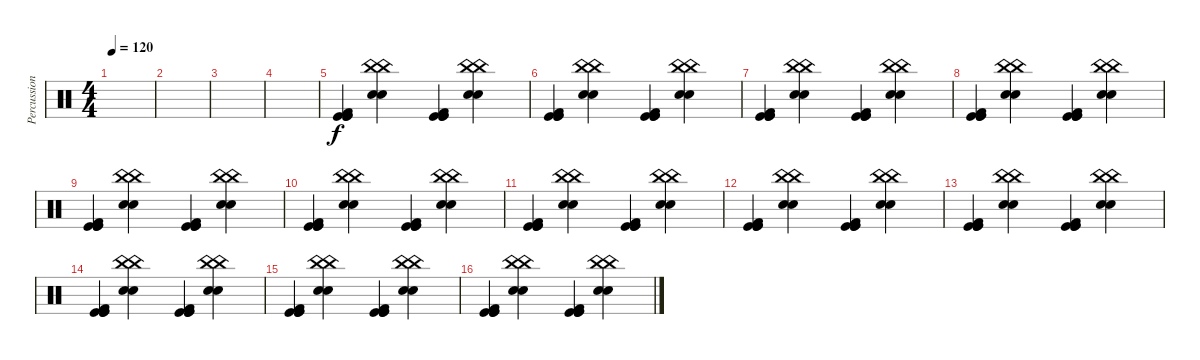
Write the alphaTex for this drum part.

\track ("Percussion" "Percussion") {instrument percussion}
\staff {score}
\articulation defaults
\ts (4 4)
\tempo 120
\tempo 100
\tempo 120
\clef neutral
\ks c
|
|
|
|
("Kick (hit)" "Kick (hit)" "Kick (hit)" "Kick (hit) 2").4 ("China (hit)" "China (hit)" "Snare (hit) 2" "Snare (hit) 2").4 ("Kick (hit)" "Kick (hit)" "Kick (hit)" "Kick (hit) 2").4 ("China (hit)" "China (hit)" "Snare (hit) 2" "Snare (hit) 2").4 |
("Kick (hit)" "Kick (hit)" "Kick (hit)" "Kick (hit) 2").4 ("China (hit)" "China (hit)" "Snare (hit) 2" "Snare (hit) 2").4 ("Kick (hit)" "Kick (hit)" "Kick (hit)" "Kick (hit) 2").4 ("China (hit)" "China (hit)" "Snare (hit) 2" "Snare (hit) 2").4 |
("Kick (hit)" "Kick (hit)" "Kick (hit)" "Kick (hit) 2").4 ("China (hit)" "China (hit)" "Snare (hit) 2" "Snare (hit) 2").4 ("Kick (hit)" "Kick (hit)" "Kick (hit)" "Kick (hit) 2").4 ("China (hit)" "China (hit)" "Snare (hit) 2" "Snare (hit) 2").4 |
("Kick (hit)" "Kick (hit)" "Kick (hit)" "Kick (hit) 2").4 ("China (hit)" "China (hit)" "Snare (hit) 2" "Snare (hit) 2").4 ("Kick (hit)" "Kick (hit)" "Kick (hit)" "Kick (hit) 2").4 ("China (hit)" "China (hit)" "Snare (hit) 2" "Snare (hit) 2").4 |
("Kick (hit)" "Kick (hit)" "Kick (hit)" "Kick (hit) 2").4 ("China (hit)" "China (hit)" "Snare (hit) 2" "Snare (hit) 2").4 ("Kick (hit)" "Kick (hit)" "Kick (hit)" "Kick (hit) 2").4 ("China (hit)" "China (hit)" "Snare (hit) 2" "Snare (hit) 2").4 |
("Kick (hit)" "Kick (hit)" "Kick (hit)" "Kick (hit) 2").4 ("China (hit)" "China (hit)" "Snare (hit) 2" "Snare (hit) 2").4 ("Kick (hit)" "Kick (hit)" "Kick (hit)" "Kick (hit) 2").4 ("China (hit)" "China (hit)" "Snare (hit) 2" "Snare (hit) 2").4 |
("Kick (hit)" "Kick (hit)" "Kick (hit)" "Kick (hit) 2").4 ("China (hit)" "China (hit)" "Snare (hit) 2" "Snare (hit) 2").4 ("Kick (hit)" "Kick (hit)" "Kick (hit)" "Kick (hit) 2").4 ("China (hit)" "China (hit)" "Snare (hit) 2" "Snare (hit) 2").4 |
("Kick (hit)" "Kick (hit)" "Kick (hit)" "Kick (hit) 2").4 ("China (hit)" "China (hit)" "Snare (hit) 2" "Snare (hit) 2").4 ("Kick (hit)" "Kick (hit)" "Kick (hit)" "Kick (hit) 2").4 ("China (hit)" "China (hit)" "Snare (hit) 2" "Snare (hit) 2").4 |
("Kick (hit)" "Kick (hit)" "Kick (hit)" "Kick (hit) 2").4 ("China (hit)" "China (hit)" "Snare (hit) 2" "Snare (hit) 2").4 ("Kick (hit)" "Kick (hit)" "Kick (hit)" "Kick (hit) 2").4 ("China (hit)" "China (hit)" "Snare (hit) 2" "Snare (hit) 2").4 |
("Kick (hit)" "Kick (hit)" "Kick (hit)" "Kick (hit) 2").4 ("China (hit)" "China (hit)" "Snare (hit) 2" "Snare (hit) 2").4 ("Kick (hit)" "Kick (hit)" "Kick (hit)" "Kick (hit) 2").4 ("China (hit)" "China (hit)" "Snare (hit) 2" "Snare (hit) 2").4 |
("Kick (hit)" "Kick (hit)" "Kick (hit)" "Kick (hit) 2").4 ("China (hit)" "China (hit)" "Snare (hit) 2" "Snare (hit) 2").4 ("Kick (hit)" "Kick (hit)" "Kick (hit)" "Kick (hit) 2").4 ("China (hit)" "China (hit)" "Snare (hit) 2" "Snare (hit) 2").4 |
("Kick (hit)" "Kick (hit)" "Kick (hit)" "Kick (hit) 2").4 ("China (hit)" "China (hit)" "Snare (hit) 2" "Snare (hit) 2").4 ("Kick (hit)" "Kick (hit)" "Kick (hit)" "Kick (hit) 2").4 ("China (hit)" "China (hit)" "Snare (hit) 2" "Snare (hit) 2").4
